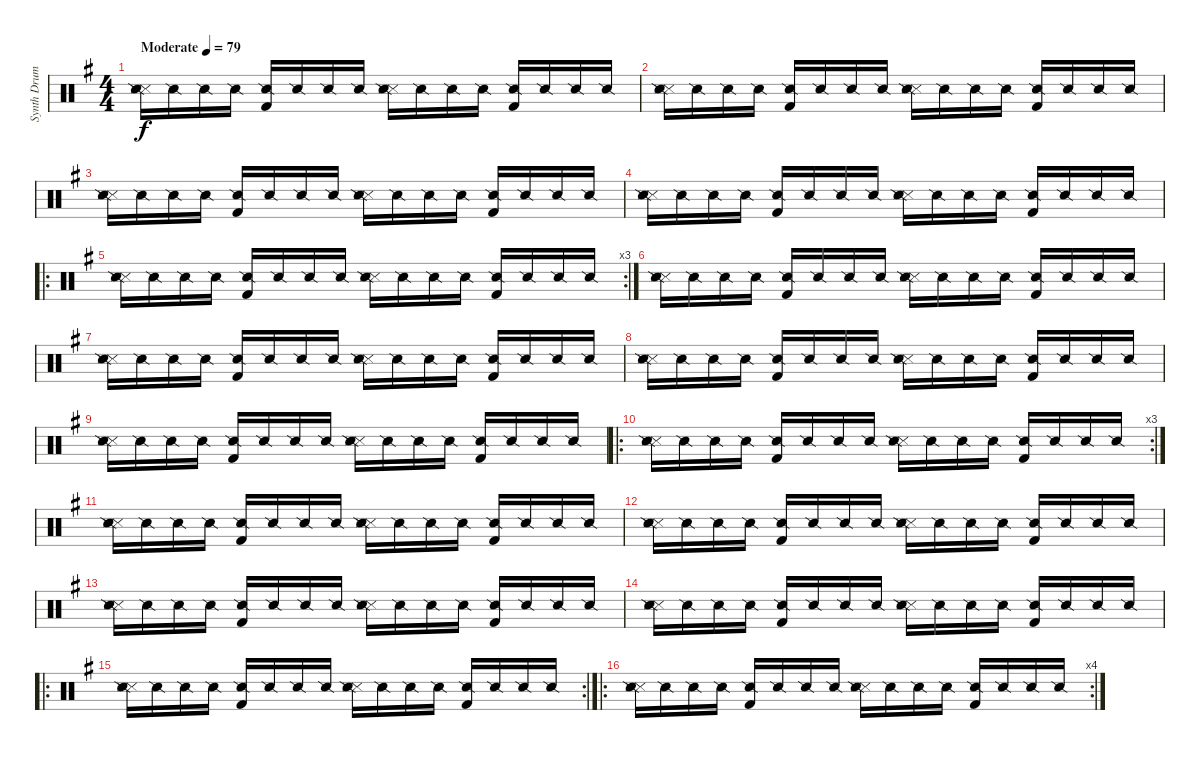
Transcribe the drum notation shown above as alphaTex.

\track ("Synth Drums" "Synth Drum") {instrument percussion}
\staff {score}
\articulation defaults
\ts (4 4)
\tempo (79 "Moderate")
\clef neutral
\ks g
("Metronome (hit)" "Snare (side stick) 2" "Snare (side stick) 3").16{dy f} "Snare (side stick) 2".16 "Snare (side stick) 2".16 "Snare (side stick) 2".16 ("Kick (hit) 2" "Snare (side stick) 2").16 "Snare (side stick) 2".16 "Snare (side stick) 2".16 "Snare (side stick) 2".16 ("Metronome (hit)" "Snare (side stick) 2" "Snare (side stick) 3").16 "Snare (side stick) 2".16 "Snare (side stick) 2".16 "Snare (side stick) 2".16 ("Kick (hit) 2" "Snare (side stick) 2").16 "Snare (side stick) 2".16 "Snare (side stick) 2".16 "Snare (side stick) 2".16 |
("Metronome (hit)" "Snare (side stick) 2" "Snare (side stick) 3").16 "Snare (side stick) 2".16 "Snare (side stick) 2".16 "Snare (side stick) 2".16 ("Kick (hit) 2" "Snare (side stick) 2").16 "Snare (side stick) 2".16 "Snare (side stick) 2".16 "Snare (side stick) 2".16 ("Metronome (hit)" "Snare (side stick) 2" "Snare (side stick) 3").16 "Snare (side stick) 2".16 "Snare (side stick) 2".16 "Snare (side stick) 2".16 ("Kick (hit) 2" "Snare (side stick) 2").16 "Snare (side stick) 2".16 "Snare (side stick) 2".16 "Snare (side stick) 2".16 |
("Metronome (hit)" "Snare (side stick) 2" "Snare (side stick) 3").16 "Snare (side stick) 2".16 "Snare (side stick) 2".16 "Snare (side stick) 2".16 ("Kick (hit) 2" "Snare (side stick) 2").16 "Snare (side stick) 2".16 "Snare (side stick) 2".16 "Snare (side stick) 2".16 ("Metronome (hit)" "Snare (side stick) 2" "Snare (side stick) 3").16 "Snare (side stick) 2".16 "Snare (side stick) 2".16 "Snare (side stick) 2".16 ("Kick (hit) 2" "Snare (side stick) 2").16 "Snare (side stick) 2".16 "Snare (side stick) 2".16 "Snare (side stick) 2".16 |
("Metronome (hit)" "Snare (side stick) 2" "Snare (side stick) 3").16 "Snare (side stick) 2".16 "Snare (side stick) 2".16 "Snare (side stick) 2".16 ("Kick (hit) 2" "Snare (side stick) 2").16 "Snare (side stick) 2".16 "Snare (side stick) 2".16 "Snare (side stick) 2".16 ("Metronome (hit)" "Snare (side stick) 2" "Snare (side stick) 3").16 "Snare (side stick) 2".16 "Snare (side stick) 2".16 "Snare (side stick) 2".16 ("Kick (hit) 2" "Snare (side stick) 2").16 "Snare (side stick) 2".16 "Snare (side stick) 2".16 "Snare (side stick) 2".16 |
\ro
\rc 3
("Metronome (hit)" "Snare (side stick) 2" "Snare (side stick) 3").16 "Snare (side stick) 2".16 "Snare (side stick) 2".16 "Snare (side stick) 2".16 ("Kick (hit) 2" "Snare (side stick) 2").16 "Snare (side stick) 2".16 "Snare (side stick) 2".16 "Snare (side stick) 2".16 ("Metronome (hit)" "Snare (side stick) 2" "Snare (side stick) 3").16 "Snare (side stick) 2".16 "Snare (side stick) 2".16 "Snare (side stick) 2".16 ("Kick (hit) 2" "Snare (side stick) 2").16 "Snare (side stick) 2".16 "Snare (side stick) 2".16 "Snare (side stick) 2".16 |
("Metronome (hit)" "Snare (side stick) 2" "Snare (side stick) 3").16 "Snare (side stick) 2".16 "Snare (side stick) 2".16 "Snare (side stick) 2".16 ("Kick (hit) 2" "Snare (side stick) 2").16 "Snare (side stick) 2".16 "Snare (side stick) 2".16 "Snare (side stick) 2".16 ("Metronome (hit)" "Snare (side stick) 2" "Snare (side stick) 3").16 "Snare (side stick) 2".16 "Snare (side stick) 2".16 "Snare (side stick) 2".16 ("Kick (hit) 2" "Snare (side stick) 2").16 "Snare (side stick) 2".16 "Snare (side stick) 2".16 "Snare (side stick) 2".16 |
("Metronome (hit)" "Snare (side stick) 2" "Snare (side stick) 3").16 "Snare (side stick) 2".16 "Snare (side stick) 2".16 "Snare (side stick) 2".16 ("Kick (hit) 2" "Snare (side stick) 2").16 "Snare (side stick) 2".16 "Snare (side stick) 2".16 "Snare (side stick) 2".16 ("Metronome (hit)" "Snare (side stick) 2" "Snare (side stick) 3").16 "Snare (side stick) 2".16 "Snare (side stick) 2".16 "Snare (side stick) 2".16 ("Kick (hit) 2" "Snare (side stick) 2").16 "Snare (side stick) 2".16 "Snare (side stick) 2".16 "Snare (side stick) 2".16 |
("Metronome (hit)" "Snare (side stick) 2" "Snare (side stick) 3").16 "Snare (side stick) 2".16 "Snare (side stick) 2".16 "Snare (side stick) 2".16 ("Kick (hit) 2" "Snare (side stick) 2").16 "Snare (side stick) 2".16 "Snare (side stick) 2".16 "Snare (side stick) 2".16 ("Metronome (hit)" "Snare (side stick) 2" "Snare (side stick) 3").16 "Snare (side stick) 2".16 "Snare (side stick) 2".16 "Snare (side stick) 2".16 ("Kick (hit) 2" "Snare (side stick) 2").16 "Snare (side stick) 2".16 "Snare (side stick) 2".16 "Snare (side stick) 2".16 |
("Metronome (hit)" "Snare (side stick) 2" "Snare (side stick) 3").16 "Snare (side stick) 2".16 "Snare (side stick) 2".16 "Snare (side stick) 2".16 ("Kick (hit) 2" "Snare (side stick) 2").16 "Snare (side stick) 2".16 "Snare (side stick) 2".16 "Snare (side stick) 2".16 ("Metronome (hit)" "Snare (side stick) 2" "Snare (side stick) 3").16 "Snare (side stick) 2".16 "Snare (side stick) 2".16 "Snare (side stick) 2".16 ("Kick (hit) 2" "Snare (side stick) 2").16 "Snare (side stick) 2".16 "Snare (side stick) 2".16 "Snare (side stick) 2".16 |
\ro
\rc 3
("Metronome (hit)" "Snare (side stick) 2" "Snare (side stick) 3").16 "Snare (side stick) 2".16 "Snare (side stick) 2".16 "Snare (side stick) 2".16 ("Kick (hit) 2" "Snare (side stick) 2").16 "Snare (side stick) 2".16 "Snare (side stick) 2".16 "Snare (side stick) 2".16 ("Metronome (hit)" "Snare (side stick) 2" "Snare (side stick) 3").16 "Snare (side stick) 2".16 "Snare (side stick) 2".16 "Snare (side stick) 2".16 ("Kick (hit) 2" "Snare (side stick) 2").16 "Snare (side stick) 2".16 "Snare (side stick) 2".16 "Snare (side stick) 2".16 |
("Metronome (hit)" "Snare (side stick) 2" "Snare (side stick) 3").16 "Snare (side stick) 2".16 "Snare (side stick) 2".16 "Snare (side stick) 2".16 ("Kick (hit) 2" "Snare (side stick) 2").16 "Snare (side stick) 2".16 "Snare (side stick) 2".16 "Snare (side stick) 2".16 ("Metronome (hit)" "Snare (side stick) 2" "Snare (side stick) 3").16 "Snare (side stick) 2".16 "Snare (side stick) 2".16 "Snare (side stick) 2".16 ("Kick (hit) 2" "Snare (side stick) 2").16 "Snare (side stick) 2".16 "Snare (side stick) 2".16 "Snare (side stick) 2".16 |
("Metronome (hit)" "Snare (side stick) 2" "Snare (side stick) 3").16 "Snare (side stick) 2".16 "Snare (side stick) 2".16 "Snare (side stick) 2".16 ("Kick (hit) 2" "Snare (side stick) 2").16 "Snare (side stick) 2".16 "Snare (side stick) 2".16 "Snare (side stick) 2".16 ("Metronome (hit)" "Snare (side stick) 2" "Snare (side stick) 3").16 "Snare (side stick) 2".16 "Snare (side stick) 2".16 "Snare (side stick) 2".16 ("Kick (hit) 2" "Snare (side stick) 2").16 "Snare (side stick) 2".16 "Snare (side stick) 2".16 "Snare (side stick) 2".16 |
("Metronome (hit)" "Snare (side stick) 2" "Snare (side stick) 3").16 "Snare (side stick) 2".16 "Snare (side stick) 2".16 "Snare (side stick) 2".16 ("Kick (hit) 2" "Snare (side stick) 2").16 "Snare (side stick) 2".16 "Snare (side stick) 2".16 "Snare (side stick) 2".16 ("Metronome (hit)" "Snare (side stick) 2" "Snare (side stick) 3").16 "Snare (side stick) 2".16 "Snare (side stick) 2".16 "Snare (side stick) 2".16 ("Kick (hit) 2" "Snare (side stick) 2").16 "Snare (side stick) 2".16 "Snare (side stick) 2".16 "Snare (side stick) 2".16 |
("Metronome (hit)" "Snare (side stick) 2" "Snare (side stick) 3").16 "Snare (side stick) 2".16 "Snare (side stick) 2".16 "Snare (side stick) 2".16 ("Kick (hit) 2" "Snare (side stick) 2").16 "Snare (side stick) 2".16 "Snare (side stick) 2".16 "Snare (side stick) 2".16 ("Metronome (hit)" "Snare (side stick) 2" "Snare (side stick) 3").16 "Snare (side stick) 2".16 "Snare (side stick) 2".16 "Snare (side stick) 2".16 ("Kick (hit) 2" "Snare (side stick) 2").16 "Snare (side stick) 2".16 "Snare (side stick) 2".16 "Snare (side stick) 2".16 |
\ro
\rc 2
("Metronome (hit)" "Snare (side stick) 2" "Snare (side stick) 3").16 "Snare (side stick) 2".16 "Snare (side stick) 2".16 "Snare (side stick) 2".16 ("Kick (hit) 2" "Snare (side stick) 2").16 "Snare (side stick) 2".16 "Snare (side stick) 2".16 "Snare (side stick) 2".16 ("Metronome (hit)" "Snare (side stick) 2" "Snare (side stick) 3").16 "Snare (side stick) 2".16 "Snare (side stick) 2".16 "Snare (side stick) 2".16 ("Kick (hit) 2" "Snare (side stick) 2").16 "Snare (side stick) 2".16 "Snare (side stick) 2".16 "Snare (side stick) 2".16 |
\ro
\rc 4
("Metronome (hit)" "Snare (side stick) 2" "Snare (side stick) 3").16 "Snare (side stick) 2".16 "Snare (side stick) 2".16 "Snare (side stick) 2".16 ("Kick (hit) 2" "Snare (side stick) 2").16 "Snare (side stick) 2".16 "Snare (side stick) 2".16 "Snare (side stick) 2".16 ("Metronome (hit)" "Snare (side stick) 2" "Snare (side stick) 3").16 "Snare (side stick) 2".16 "Snare (side stick) 2".16 "Snare (side stick) 2".16 ("Kick (hit) 2" "Snare (side stick) 2").16 "Snare (side stick) 2".16 "Snare (side stick) 2".16 "Snare (side stick) 2".16
